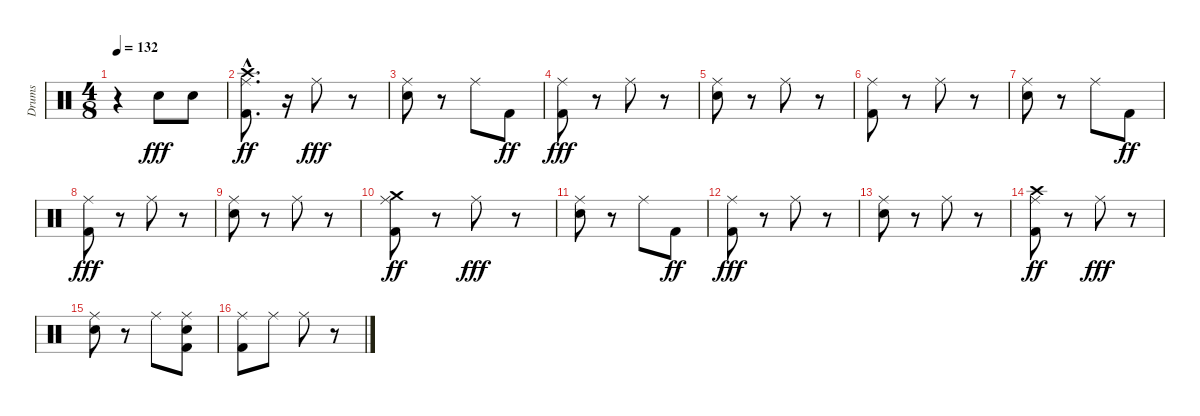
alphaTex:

\track ("Drums" "Drums") {instrument percussion}
\staff {score}
\articulation defaults
\ts (4 8)
\tempo 132
\clef neutral
\ks c
r.4{dy ff} "Snare (hit) 2".8{dy fff} "Snare (hit) 2".8 |
("Kick (hit) 2" "Ride (middle)" "Crash high (hit)"{hac}).8{d dy ff} r.16 "Ride (middle)".8{dy fff} r.8 |
("Snare (hit) 2" "Ride (middle)").8 r.8 "Ride (middle)".8 "Kick (hit) 2".8{dy ff} |
("Kick (hit) 2" "Ride (middle)").8{dy fff} r.8 "Ride (middle)".8 r.8 |
("Snare (hit) 2" "Ride (middle)").8 r.8 "Ride (middle)".8 r.8 |
("Kick (hit) 2" "Ride (middle)").8 r.8 "Ride (middle)".8 r.8 |
("Snare (hit) 2" "Ride (middle)").8 r.8 "Ride (middle)".8 "Kick (hit) 2".8{dy ff} |
("Kick (hit) 2" "Ride (middle)").8{dy fff} r.8 "Ride (middle)".8 r.8 |
("Snare (hit) 2" "Ride (middle)").8 r.8 "Ride (middle)".8 r.8 |
("Kick (hit) 2" "Ride (middle)" "Crash medium (hit)").8{dy ff} r.8 "Ride (middle)".8{dy fff} r.8 |
("Snare (hit) 2" "Ride (middle)").8 r.8 "Ride (middle)".8 "Kick (hit) 2".8{dy ff} |
("Kick (hit) 2" "Ride (middle)").8{dy fff} r.8 "Ride (middle)".8 r.8 |
("Snare (hit) 2" "Ride (middle)").8 r.8 "Ride (middle)".8 r.8 |
("Kick (hit) 2" "Ride (middle)" "Crash high (hit)").8{dy ff} r.8 "Ride (middle)".8{dy fff} r.8 |
("Snare (hit) 2" "Ride (middle)").8 r.8 "Ride (middle)".8 ("Kick (hit) 2" "Snare (hit) 2" "Ride (middle)").8 |
("Kick (hit) 2" "Ride (middle)").8 "Ride (middle)".8 "Ride (middle)".8 r.8
